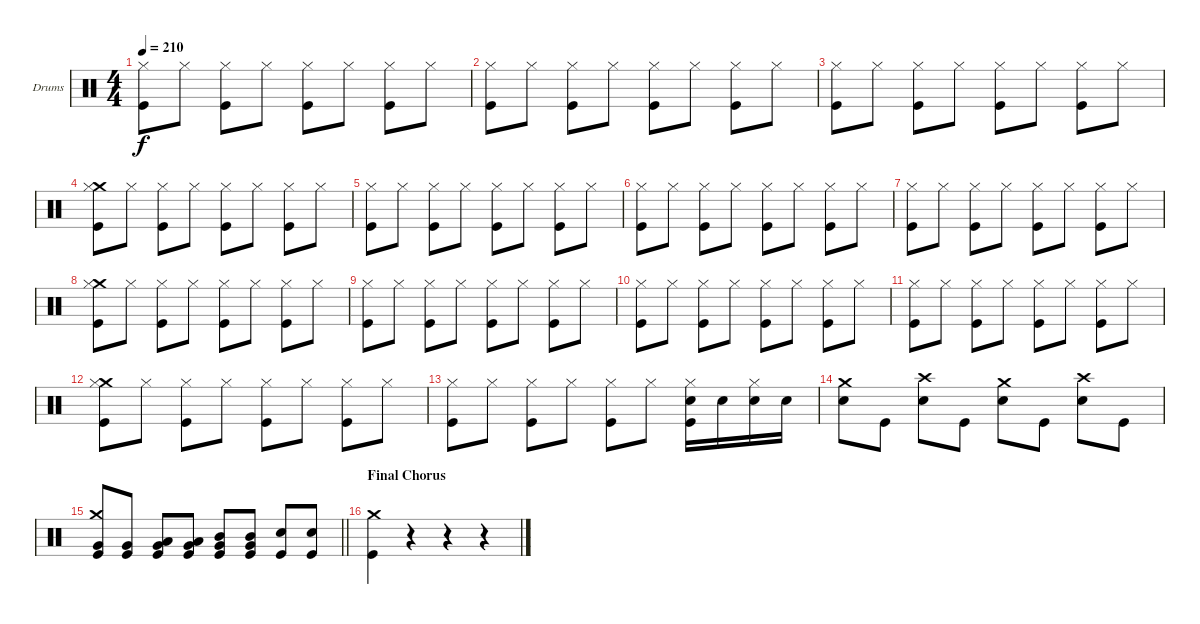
\bracketExtendMode groupsimilarinstruments
\firstSystemTrackNameOrientation horizontal
\otherSystemsTrackNameOrientation horizontal
\track ("Drumkit" "Drums") {instrument percussion}
\staff {score}
\articulation defaults
\ts (4 4)
\tempo 210
\clef neutral
\ks c
("Hi-Hat (closed)" "Kick (hit)").8{dy f} "Hi-Hat (closed)".8 ("Hi-Hat (closed)" "Kick (hit)").8 "Hi-Hat (closed)".8 ("Hi-Hat (closed)" "Kick (hit)").8 "Hi-Hat (closed)".8 ("Hi-Hat (closed)" "Kick (hit)").8 "Hi-Hat (closed)".8 |
("Hi-Hat (closed)" "Kick (hit)").8 "Hi-Hat (closed)".8 ("Hi-Hat (closed)" "Kick (hit)").8 "Hi-Hat (closed)".8 ("Hi-Hat (closed)" "Kick (hit)").8 "Hi-Hat (closed)".8 ("Hi-Hat (closed)" "Kick (hit)").8 "Hi-Hat (closed)".8 |
("Hi-Hat (closed)" "Kick (hit)").8 "Hi-Hat (closed)".8 ("Hi-Hat (closed)" "Kick (hit)").8 "Hi-Hat (closed)".8 ("Hi-Hat (closed)" "Kick (hit)").8 "Hi-Hat (closed)".8 ("Hi-Hat (closed)" "Kick (hit)").8 "Hi-Hat (closed)".8 |
("Crash medium (hit)" "Hi-Hat (closed)" "Kick (hit)").8 "Hi-Hat (closed)".8 ("Hi-Hat (closed)" "Kick (hit)").8 "Hi-Hat (closed)".8 ("Hi-Hat (closed)" "Kick (hit)").8 "Hi-Hat (closed)".8 ("Hi-Hat (closed)" "Kick (hit)").8 "Hi-Hat (closed)".8 |
("Hi-Hat (closed)" "Kick (hit)").8 "Hi-Hat (closed)".8 ("Hi-Hat (closed)" "Kick (hit)").8 "Hi-Hat (closed)".8 ("Hi-Hat (closed)" "Kick (hit)").8 "Hi-Hat (closed)".8 ("Hi-Hat (closed)" "Kick (hit)").8 "Hi-Hat (closed)".8 |
("Hi-Hat (closed)" "Kick (hit)").8 "Hi-Hat (closed)".8 ("Hi-Hat (closed)" "Kick (hit)").8 "Hi-Hat (closed)".8 ("Hi-Hat (closed)" "Kick (hit)").8 "Hi-Hat (closed)".8 ("Hi-Hat (closed)" "Kick (hit)").8 "Hi-Hat (closed)".8 |
("Hi-Hat (closed)" "Kick (hit)").8 "Hi-Hat (closed)".8 ("Hi-Hat (closed)" "Kick (hit)").8 "Hi-Hat (closed)".8 ("Hi-Hat (closed)" "Kick (hit)").8 "Hi-Hat (closed)".8 ("Hi-Hat (closed)" "Kick (hit)").8 "Hi-Hat (closed)".8 |
("Crash medium (hit)" "Hi-Hat (closed)" "Kick (hit)").8 "Hi-Hat (closed)".8 ("Hi-Hat (closed)" "Kick (hit)").8 "Hi-Hat (closed)".8 ("Hi-Hat (closed)" "Kick (hit)").8 "Hi-Hat (closed)".8 ("Hi-Hat (closed)" "Kick (hit)").8 "Hi-Hat (closed)".8 |
("Hi-Hat (closed)" "Kick (hit)").8 "Hi-Hat (closed)".8 ("Hi-Hat (closed)" "Kick (hit)").8 "Hi-Hat (closed)".8 ("Hi-Hat (closed)" "Kick (hit)").8 "Hi-Hat (closed)".8 ("Hi-Hat (closed)" "Kick (hit)").8 "Hi-Hat (closed)".8 |
("Hi-Hat (closed)" "Kick (hit)").8 "Hi-Hat (closed)".8 ("Hi-Hat (closed)" "Kick (hit)").8 "Hi-Hat (closed)".8 ("Hi-Hat (closed)" "Kick (hit)").8 "Hi-Hat (closed)".8 ("Hi-Hat (closed)" "Kick (hit)").8 "Hi-Hat (closed)".8 |
("Hi-Hat (closed)" "Kick (hit)").8 "Hi-Hat (closed)".8 ("Hi-Hat (closed)" "Kick (hit)").8 "Hi-Hat (closed)".8 ("Hi-Hat (closed)" "Kick (hit)").8 "Hi-Hat (closed)".8 ("Hi-Hat (closed)" "Kick (hit)").8 "Hi-Hat (closed)".8 |
("Crash medium (hit)" "Hi-Hat (closed)" "Kick (hit)").8 "Hi-Hat (closed)".8 ("Hi-Hat (closed)" "Kick (hit)").8 "Hi-Hat (closed)".8 ("Hi-Hat (closed)" "Kick (hit)").8 "Hi-Hat (closed)".8 ("Hi-Hat (closed)" "Kick (hit)").8 "Hi-Hat (closed)".8 |
("Hi-Hat (closed)" "Kick (hit)").8 "Hi-Hat (closed)".8 ("Hi-Hat (closed)" "Kick (hit)").8 "Hi-Hat (closed)".8 ("Hi-Hat (closed)" "Kick (hit)").8 "Hi-Hat (closed)".8 ("Hi-Hat (closed)" "Snare (hit) 2" "Kick (hit)").16 "Snare (hit) 2".16 ("Hi-Hat (closed)" "Snare (hit) 2").16 "Snare (hit) 2".16 |
("Crash medium (hit)" "Snare (hit) 2").8 "Kick (hit)".8 ("Crash high (hit)" "Snare (hit) 2").8 "Kick (hit)".8 ("Crash medium (hit)" "Snare (hit) 2").8 "Kick (hit)".8 ("Crash high (hit)" "Snare (hit) 2").8 "Kick (hit)".8 |
\barLineRight lightlight
("Crash medium (hit)" "Very Low Tom (hit)" "Kick (hit)").8 ("Very Low Tom (hit)" "Kick (hit)").8 ("Low Tom (hit)" "Very Low Tom (hit)" "Kick (hit)").8 ("Low Tom (hit)" "Very Low Tom (hit)" "Kick (hit)").8 ("Mid Tom (hit)" "Very Low Tom (hit)" "Kick (hit)").8 ("Mid Tom (hit)" "Very Low Tom (hit)" "Kick (hit)").8 ("Snare (hit) 2" "Kick (hit)").8 ("Snare (hit) 2" "Kick (hit)").8 |
\section ("" "Final Chorus")
("Crash medium (hit)" "Kick (hit)").4 r.4 r.4 r.4
